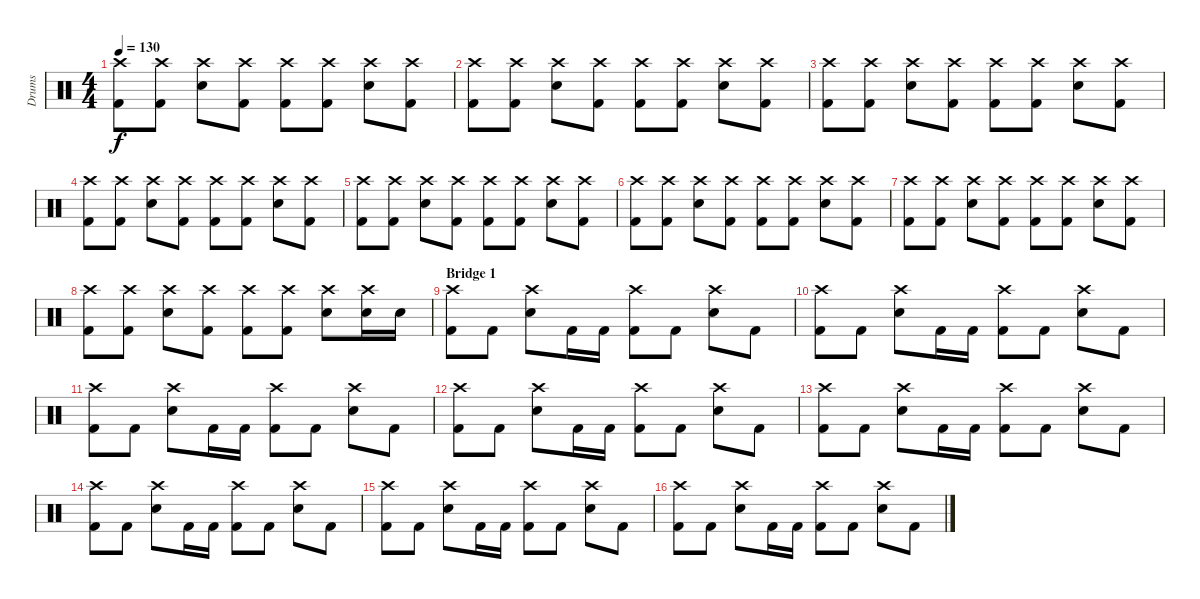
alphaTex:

\track ("Drums" "Drums") {instrument percussion}
\staff {score}
\articulation defaults
\ts (4 4)
\tempo 130
\clef neutral
\ks c
("Crash high (hit)" "Kick (hit) 2").8{dy f} ("Crash high (hit)" "Kick (hit) 2").8 ("Crash high (hit)" "Electric Snare (hit)").8 ("Crash high (hit)" "Kick (hit) 2").8 ("Crash high (hit)" "Kick (hit) 2").8 ("Crash high (hit)" "Kick (hit) 2").8 ("Crash high (hit)" "Electric Snare (hit)").8 ("Crash high (hit)" "Kick (hit) 2").8 |
("Crash high (hit)" "Kick (hit) 2").8 ("Crash high (hit)" "Kick (hit) 2").8 ("Crash high (hit)" "Electric Snare (hit)").8 ("Crash high (hit)" "Kick (hit) 2").8 ("Crash high (hit)" "Kick (hit) 2").8 ("Crash high (hit)" "Kick (hit) 2").8 ("Crash high (hit)" "Electric Snare (hit)").8 ("Crash high (hit)" "Kick (hit) 2").8 |
("Crash high (hit)" "Kick (hit) 2").8 ("Crash high (hit)" "Kick (hit) 2").8 ("Crash high (hit)" "Electric Snare (hit)").8 ("Crash high (hit)" "Kick (hit) 2").8 ("Crash high (hit)" "Kick (hit) 2").8 ("Crash high (hit)" "Kick (hit) 2").8 ("Crash high (hit)" "Electric Snare (hit)").8 ("Crash high (hit)" "Kick (hit) 2").8 |
("Crash high (hit)" "Kick (hit) 2").8 ("Crash high (hit)" "Kick (hit) 2").8 ("Crash high (hit)" "Electric Snare (hit)").8 ("Crash high (hit)" "Kick (hit) 2").8 ("Crash high (hit)" "Kick (hit) 2").8 ("Crash high (hit)" "Kick (hit) 2").8 ("Crash high (hit)" "Electric Snare (hit)").8 ("Crash high (hit)" "Kick (hit) 2").8 |
("Crash high (hit)" "Kick (hit) 2").8 ("Crash high (hit)" "Kick (hit) 2").8 ("Crash high (hit)" "Electric Snare (hit)").8 ("Crash high (hit)" "Kick (hit) 2").8 ("Crash high (hit)" "Kick (hit) 2").8 ("Crash high (hit)" "Kick (hit) 2").8 ("Crash high (hit)" "Electric Snare (hit)").8 ("Crash high (hit)" "Kick (hit) 2").8 |
("Crash high (hit)" "Kick (hit) 2").8 ("Crash high (hit)" "Kick (hit) 2").8 ("Crash high (hit)" "Electric Snare (hit)").8 ("Crash high (hit)" "Kick (hit) 2").8 ("Crash high (hit)" "Kick (hit) 2").8 ("Crash high (hit)" "Kick (hit) 2").8 ("Crash high (hit)" "Electric Snare (hit)").8 ("Crash high (hit)" "Kick (hit) 2").8 |
("Crash high (hit)" "Kick (hit) 2").8 ("Crash high (hit)" "Kick (hit) 2").8 ("Crash high (hit)" "Electric Snare (hit)").8 ("Crash high (hit)" "Kick (hit) 2").8 ("Crash high (hit)" "Kick (hit) 2").8 ("Crash high (hit)" "Kick (hit) 2").8 ("Crash high (hit)" "Electric Snare (hit)").8 ("Crash high (hit)" "Kick (hit) 2").8 |
("Crash high (hit)" "Kick (hit) 2").8 ("Crash high (hit)" "Kick (hit) 2").8 ("Crash high (hit)" "Electric Snare (hit)").8 ("Crash high (hit)" "Kick (hit) 2").8 ("Crash high (hit)" "Kick (hit) 2").8 ("Crash high (hit)" "Kick (hit) 2").8 ("Crash high (hit)" "Electric Snare (hit)").8 ("Crash high (hit)" "Electric Snare (hit)").16 "Electric Snare (hit)".16 |
\section ("" "Bridge 1")
("Crash high (hit)" "Kick (hit) 2").8 "Kick (hit) 2".8 ("Crash high (hit)" "Electric Snare (hit)").8 "Kick (hit) 2".16 "Kick (hit) 2".16 ("Crash high (hit)" "Kick (hit) 2").8 "Kick (hit) 2".8 ("Crash high (hit)" "Electric Snare (hit)").8 "Kick (hit) 2".8 |
("Crash high (hit)" "Kick (hit) 2").8 "Kick (hit) 2".8 ("Crash high (hit)" "Electric Snare (hit)").8 "Kick (hit) 2".16 "Kick (hit) 2".16 ("Crash high (hit)" "Kick (hit) 2").8 "Kick (hit) 2".8 ("Crash high (hit)" "Electric Snare (hit)").8 "Kick (hit) 2".8 |
("Crash high (hit)" "Kick (hit) 2").8 "Kick (hit) 2".8 ("Crash high (hit)" "Electric Snare (hit)").8 "Kick (hit) 2".16 "Kick (hit) 2".16 ("Crash high (hit)" "Kick (hit) 2").8 "Kick (hit) 2".8 ("Crash high (hit)" "Electric Snare (hit)").8 "Kick (hit) 2".8 |
("Crash high (hit)" "Kick (hit) 2").8 "Kick (hit) 2".8 ("Crash high (hit)" "Electric Snare (hit)").8 "Kick (hit) 2".16 "Kick (hit) 2".16 ("Crash high (hit)" "Kick (hit) 2").8 "Kick (hit) 2".8 ("Crash high (hit)" "Electric Snare (hit)").8 "Kick (hit) 2".8 |
("Crash high (hit)" "Kick (hit) 2").8 "Kick (hit) 2".8 ("Crash high (hit)" "Electric Snare (hit)").8 "Kick (hit) 2".16 "Kick (hit) 2".16 ("Crash high (hit)" "Kick (hit) 2").8 "Kick (hit) 2".8 ("Crash high (hit)" "Electric Snare (hit)").8 "Kick (hit) 2".8 |
("Crash high (hit)" "Kick (hit) 2").8 "Kick (hit) 2".8 ("Crash high (hit)" "Electric Snare (hit)").8 "Kick (hit) 2".16 "Kick (hit) 2".16 ("Crash high (hit)" "Kick (hit) 2").8 "Kick (hit) 2".8 ("Crash high (hit)" "Electric Snare (hit)").8 "Kick (hit) 2".8 |
("Crash high (hit)" "Kick (hit) 2").8 "Kick (hit) 2".8 ("Crash high (hit)" "Electric Snare (hit)").8 "Kick (hit) 2".16 "Kick (hit) 2".16 ("Crash high (hit)" "Kick (hit) 2").8 "Kick (hit) 2".8 ("Crash high (hit)" "Electric Snare (hit)").8 "Kick (hit) 2".8 |
("Crash high (hit)" "Kick (hit) 2").8 "Kick (hit) 2".8 ("Crash high (hit)" "Electric Snare (hit)").8 "Kick (hit) 2".16 "Kick (hit) 2".16 ("Crash high (hit)" "Kick (hit) 2").8 "Kick (hit) 2".8 ("Crash high (hit)" "Electric Snare (hit)").8 "Kick (hit) 2".8
